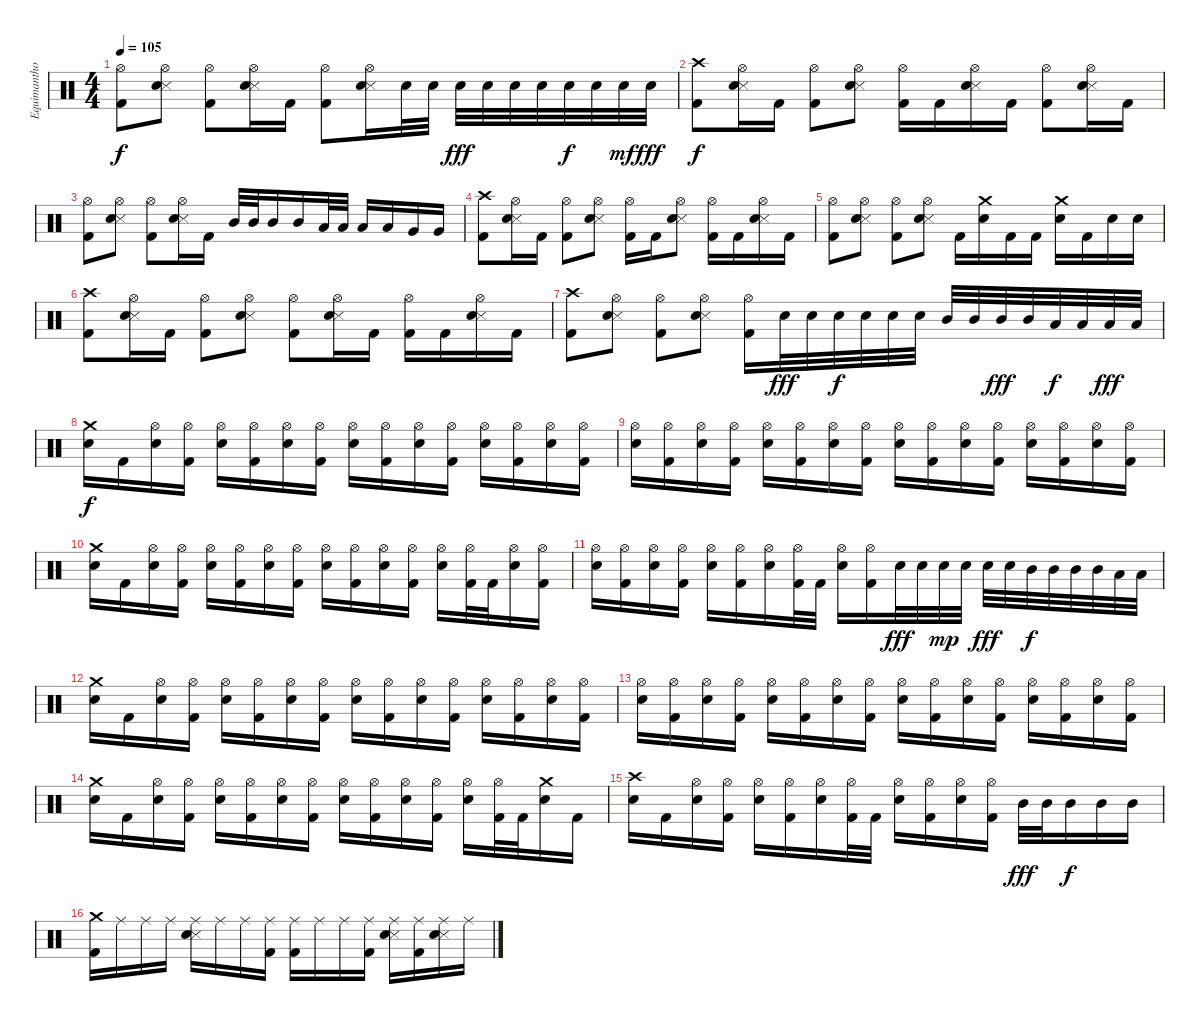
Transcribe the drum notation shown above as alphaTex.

\track ("Equimanthorn" "Equimantho") {instrument percussion}
\staff {score}
\articulation defaults
\ts (4 4)
\tempo 105
\clef neutral
\ks c
("Hi-Hat (open)" "Kick (hit) 2").8{dy f} ("Hi-Hat (open)" "Snare (side stick) 3" "Snare (hit) 2").8 ("Hi-Hat (open)" "Kick (hit) 2").8 ("Hi-Hat (open)" "Snare (side stick) 3" "Snare (hit) 2").16 "Kick (hit) 2".16 ("Hi-Hat (open)" "Kick (hit) 2").8 ("Hi-Hat (open)" "Snare (side stick) 3" "Snare (hit) 2").16 "Snare (hit) 2".32 "Snare (hit) 2".32 "Snare (hit) 2".32{dy fff} "Snare (hit) 2".32 "Snare (hit) 2".32 "Snare (hit) 2".32 "Snare (hit) 2".32{dy f} "Snare (hit) 2".32 "Snare (hit) 2".32{dy mf} "Snare (hit) 2".32{dy fff} |
("Crash high (hit)" "Kick (hit) 2").8{dy f} ("Hi-Hat (open)" "Snare (side stick) 3" "Snare (hit) 2").16 "Kick (hit) 2".16 ("Hi-Hat (open)" "Kick (hit) 2").8 ("Hi-Hat (open)" "Snare (side stick) 3" "Snare (hit) 2").8 ("Hi-Hat (open)" "Kick (hit) 2").16 "Kick (hit) 2".16 ("Hi-Hat (open)" "Snare (side stick) 3" "Snare (hit) 2").16 "Kick (hit) 2".16 ("Hi-Hat (open)" "Kick (hit) 2").8 ("Hi-Hat (open)" "Snare (side stick) 3" "Snare (hit) 2").16 "Kick (hit) 2".16 |
("Hi-Hat (open)" "Kick (hit) 2").8 ("Hi-Hat (open)" "Snare (side stick) 3" "Snare (hit) 2").8 ("Hi-Hat (open)" "Kick (hit) 2").8 ("Hi-Hat (open)" "Snare (side stick) 3" "Snare (hit) 2").16 "Kick (hit) 2".16 "Mid Tom (hit)".32 "Mid Tom (hit)".32 "Mid Tom (hit)".16 "Mid Tom (hit)".16 "Low Tom (hit)".32 "Low Tom (hit)".32 "Low Tom (hit)".16 "Low Tom (hit)".16 "Very Low Tom (hit)".16 "Very Low Tom (hit)".16 |
("Crash high (hit)" "Kick (hit) 2").8 ("Hi-Hat (open)" "Snare (side stick) 3" "Snare (hit) 2").16 "Kick (hit) 2".16 ("Hi-Hat (open)" "Kick (hit) 2").8 ("Hi-Hat (open)" "Snare (side stick) 3" "Snare (hit) 2").8 ("Hi-Hat (open)" "Kick (hit) 2").16 "Kick (hit) 2".16 ("Hi-Hat (open)" "Snare (side stick) 3" "Snare (hit) 2").8 ("Hi-Hat (open)" "Kick (hit) 2").16 "Kick (hit) 2".16 ("Hi-Hat (open)" "Snare (side stick) 3" "Snare (hit) 2").16 "Kick (hit) 2".16 |
("Hi-Hat (open)" "Kick (hit) 2").8 ("Hi-Hat (open)" "Snare (side stick) 3" "Snare (hit) 2").8 ("Hi-Hat (open)" "Kick (hit) 2").8 ("Hi-Hat (open)" "Snare (side stick) 3" "Snare (hit) 2").8 "Kick (hit) 2".16 ("Crash medium (hit)" "Snare (hit) 2").16 "Kick (hit) 2".16 "Kick (hit) 2".16 ("Crash medium (hit)" "Snare (hit) 2").16 "Kick (hit) 2".16 "Snare (hit) 2".16 "Snare (hit) 2".16 |
("Crash high (hit)" "Kick (hit) 2").8 ("Hi-Hat (open)" "Snare (side stick) 3" "Snare (hit) 2").16 "Kick (hit) 2".16 ("Hi-Hat (open)" "Kick (hit) 2").8 ("Hi-Hat (open)" "Snare (side stick) 3" "Snare (hit) 2").8 ("Hi-Hat (open)" "Kick (hit) 2").8 ("Hi-Hat (open)" "Snare (side stick) 3" "Snare (hit) 2").16 "Kick (hit) 2".16 ("Hi-Hat (open)" "Kick (hit) 2").16 "Kick (hit) 2".16 ("Hi-Hat (open)" "Snare (side stick) 3" "Snare (hit) 2").16 "Kick (hit) 2".16 |
("Crash high (hit)" "Kick (hit) 2").8 ("Hi-Hat (open)" "Snare (side stick) 3" "Snare (hit) 2").8 ("Hi-Hat (open)" "Kick (hit) 2").8 ("Hi-Hat (open)" "Snare (side stick) 3" "Snare (hit) 2").8 ("Hi-Hat (open)" "Kick (hit) 2").16 "Snare (hit) 2".32{dy fff} "Snare (hit) 2".32 "Snare (hit) 2".32{dy f} "Snare (hit) 2".32 "Snare (hit) 2".32 "Snare (hit) 2".32 "Mid Tom (hit)".32 "Mid Tom (hit)".32 "Mid Tom (hit)".32{dy fff} "Mid Tom (hit)".32 "Low Tom (hit)".32{dy f} "Low Tom (hit)".32 "Low Tom (hit)".32{dy fff} "Low Tom (hit)".32 |
("Crash medium (hit)" "Snare (hit) 2").16{dy f} "Kick (hit) 2".16 ("Hi-Hat (open)" "Snare (hit) 2").16 ("Hi-Hat (open)" "Kick (hit) 2").16 ("Hi-Hat (open)" "Snare (hit) 2").16 ("Hi-Hat (open)" "Kick (hit) 2").16 ("Hi-Hat (open)" "Snare (hit) 2").16 ("Hi-Hat (open)" "Kick (hit) 2").16 ("Hi-Hat (open)" "Snare (hit) 2").16 ("Hi-Hat (open)" "Kick (hit) 2").16 ("Hi-Hat (open)" "Snare (hit) 2").16 ("Hi-Hat (open)" "Kick (hit) 2").16 ("Hi-Hat (open)" "Snare (hit) 2").16 ("Hi-Hat (open)" "Kick (hit) 2").16 ("Hi-Hat (open)" "Snare (hit) 2").16 ("Hi-Hat (open)" "Kick (hit) 2").16 |
("Hi-Hat (open)" "Snare (hit) 2").16 ("Hi-Hat (open)" "Kick (hit) 2").16 ("Hi-Hat (open)" "Snare (hit) 2").16 ("Hi-Hat (open)" "Kick (hit) 2").16 ("Hi-Hat (open)" "Snare (hit) 2").16 ("Hi-Hat (open)" "Kick (hit) 2").16 ("Hi-Hat (open)" "Snare (hit) 2").16 ("Hi-Hat (open)" "Kick (hit) 2").16 ("Hi-Hat (open)" "Snare (hit) 2").16 ("Hi-Hat (open)" "Kick (hit) 2").16 ("Hi-Hat (open)" "Snare (hit) 2").16 ("Hi-Hat (open)" "Kick (hit) 2").16 ("Hi-Hat (open)" "Snare (hit) 2").16 ("Hi-Hat (open)" "Kick (hit) 2").16 ("Hi-Hat (open)" "Snare (hit) 2").16 ("Hi-Hat (open)" "Kick (hit) 2").16 |
("Crash medium (hit)" "Snare (hit) 2").16 "Kick (hit) 2".16 ("Hi-Hat (open)" "Snare (hit) 2").16 ("Hi-Hat (open)" "Kick (hit) 2").16 ("Hi-Hat (open)" "Snare (hit) 2").16 ("Hi-Hat (open)" "Kick (hit) 2").16 ("Hi-Hat (open)" "Snare (hit) 2").16 ("Hi-Hat (open)" "Kick (hit) 2").16 ("Hi-Hat (open)" "Snare (hit) 2").16 ("Hi-Hat (open)" "Kick (hit) 2").16 ("Hi-Hat (open)" "Snare (hit) 2").16 ("Hi-Hat (open)" "Kick (hit) 2").16 ("Hi-Hat (open)" "Snare (hit) 2").16 ("Hi-Hat (open)" "Kick (hit) 2").32 "Kick (hit) 2".32 ("Hi-Hat (open)" "Snare (hit) 2").16 ("Hi-Hat (open)" "Kick (hit) 2").16 |
("Hi-Hat (open)" "Snare (hit) 2").16 ("Hi-Hat (open)" "Kick (hit) 2").16 ("Hi-Hat (open)" "Snare (hit) 2").16 ("Hi-Hat (open)" "Kick (hit) 2").16 ("Hi-Hat (open)" "Snare (hit) 2").16 ("Hi-Hat (open)" "Kick (hit) 2").16 ("Hi-Hat (open)" "Snare (hit) 2").16 ("Hi-Hat (open)" "Kick (hit) 2").32 "Kick (hit) 2".32 ("Hi-Hat (open)" "Snare (hit) 2").16 ("Hi-Hat (open)" "Kick (hit) 2").16 "Snare (hit) 2".32{dy fff} "Snare (hit) 2".32 "Snare (hit) 2".32{dy mp} "Snare (hit) 2".32 "Snare (hit) 2".32{dy fff} "Snare (hit) 2".32 "Mid Tom (hit)".32{dy f} "Mid Tom (hit)".32 "Mid Tom (hit)".32 "Mid Tom (hit)".32 "Low Tom (hit)".32 "Low Tom (hit)".32 |
("Crash medium (hit)" "Snare (hit) 2").16 "Kick (hit) 2".16 ("Hi-Hat (open)" "Snare (hit) 2").16 ("Hi-Hat (open)" "Kick (hit) 2").16 ("Hi-Hat (open)" "Snare (hit) 2").16 ("Hi-Hat (open)" "Kick (hit) 2").16 ("Hi-Hat (open)" "Snare (hit) 2").16 ("Hi-Hat (open)" "Kick (hit) 2").16 ("Hi-Hat (open)" "Snare (hit) 2").16 ("Hi-Hat (open)" "Kick (hit) 2").16 ("Hi-Hat (open)" "Snare (hit) 2").16 ("Hi-Hat (open)" "Kick (hit) 2").16 ("Hi-Hat (open)" "Snare (hit) 2").16 ("Hi-Hat (open)" "Kick (hit) 2").16 ("Hi-Hat (open)" "Snare (hit) 2").16 ("Hi-Hat (open)" "Kick (hit) 2").16 |
("Hi-Hat (open)" "Snare (hit) 2").16 ("Hi-Hat (open)" "Kick (hit) 2").16 ("Hi-Hat (open)" "Snare (hit) 2").16 ("Hi-Hat (open)" "Kick (hit) 2").16 ("Hi-Hat (open)" "Snare (hit) 2").16 ("Hi-Hat (open)" "Kick (hit) 2").16 ("Hi-Hat (open)" "Snare (hit) 2").16 ("Hi-Hat (open)" "Kick (hit) 2").16 ("Hi-Hat (open)" "Snare (hit) 2").16 ("Hi-Hat (open)" "Kick (hit) 2").16 ("Hi-Hat (open)" "Snare (hit) 2").16 ("Hi-Hat (open)" "Kick (hit) 2").16 ("Hi-Hat (open)" "Snare (hit) 2").16 ("Hi-Hat (open)" "Kick (hit) 2").16 ("Hi-Hat (open)" "Snare (hit) 2").16 ("Hi-Hat (open)" "Kick (hit) 2").16 |
("Crash medium (hit)" "Snare (hit) 2").16 "Kick (hit) 2".16 ("Hi-Hat (open)" "Snare (hit) 2").16 ("Hi-Hat (open)" "Kick (hit) 2").16 ("Hi-Hat (open)" "Snare (hit) 2").16 ("Hi-Hat (open)" "Kick (hit) 2").16 ("Hi-Hat (open)" "Snare (hit) 2").16 ("Hi-Hat (open)" "Kick (hit) 2").16 ("Hi-Hat (open)" "Snare (hit) 2").16 ("Hi-Hat (open)" "Kick (hit) 2").16 ("Hi-Hat (open)" "Snare (hit) 2").16 ("Hi-Hat (open)" "Kick (hit) 2").16 ("Hi-Hat (open)" "Snare (hit) 2").16 ("Hi-Hat (open)" "Kick (hit) 2").32 "Kick (hit) 2".32 ("Crash medium (hit)" "Snare (hit) 2").16 "Kick (hit) 2".16 |
("Crash high (hit)" "Snare (hit) 2").16 "Kick (hit) 2".16 ("Hi-Hat (open)" "Snare (hit) 2").16 ("Hi-Hat (open)" "Kick (hit) 2").16 ("Hi-Hat (open)" "Snare (hit) 2").16 ("Hi-Hat (open)" "Kick (hit) 2").16 ("Hi-Hat (open)" "Snare (hit) 2").16 ("Hi-Hat (open)" "Kick (hit) 2").32 "Kick (hit) 2".32 ("Hi-Hat (open)" "Snare (hit) 2").16 ("Hi-Hat (open)" "Kick (hit) 2").16 ("Hi-Hat (open)" "Snare (hit) 2").16 ("Hi-Hat (open)" "Kick (hit) 2").16 "Mid Tom (hit)".32{dy fff} "Mid Tom (hit)".32 "Mid Tom (hit)".16{dy f} "Mid Tom (hit)".16 "Mid Tom (hit)".16 |
("Crash medium (hit)" "Kick (hit) 2").16 "Ride (middle)".16 "Ride (middle)".16 "Ride (middle)".16 ("Ride (middle)" "Snare (side stick) 3" "Snare (hit) 2").16 "Ride (middle)".16 "Ride (middle)".16 ("Ride (middle)" "Kick (hit) 2").16 ("Ride (middle)" "Kick (hit) 2").16 "Ride (middle)".16 "Ride (middle)".16 ("Ride (middle)" "Kick (hit) 2").16 ("Ride (middle)" "Snare (side stick) 3" "Snare (hit) 2").16 ("Ride (middle)" "Kick (hit) 2").16 ("Ride (middle)" "Snare (side stick) 3" "Snare (hit) 2").16 "Ride (middle)".16
